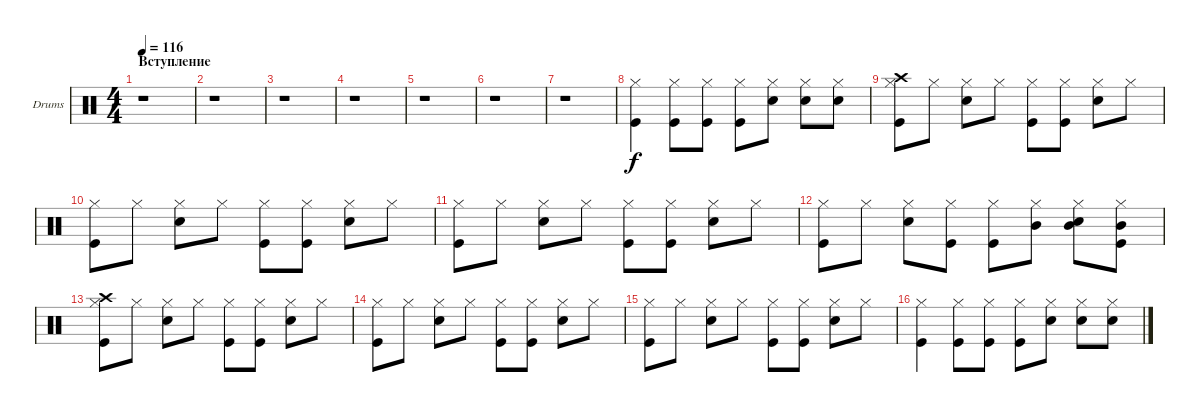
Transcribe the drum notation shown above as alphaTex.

\defaultSystemsLayout 4
\bracketExtendMode groupsimilarinstruments
\firstSystemTrackNameOrientation horizontal
\otherSystemsTrackNameOrientation horizontal
\track ("Drumkit" "Drums") {instrument percussion}
\staff {score}
\articulation defaults
\ts (4 4)
\section ("" "Вступление")
\tempo 116
\clef neutral
\scale
0.472222
\ks c
r.1{dy f} |
\scale
0.263889 r.1 |
\scale
0.263889 r.1 |
\scale
0.333333 r.1 |
\scale
0.333333 r.1 |
\scale
0.333333 r.1 |
\scale
0.333333 r.1 |
\scale
0.333333 ("Hi-Hat (closed)" "Kick (hit)").4 ("Hi-Hat (closed)" "Kick (hit)").8 ("Hi-Hat (closed)" "Kick (hit)").8 ("Hi-Hat (closed)" "Kick (hit)").8 ("Hi-Hat (closed)" "Snare (hit) 2").8 ("Hi-Hat (closed)" "Snare (hit) 2").8 ("Hi-Hat (closed)" "Snare (hit) 2").8 |
\scale
0.333333 ("Hi-Hat (closed)" "Crash high (hit)" "Kick (hit)").8 "Hi-Hat (closed)".8 ("Hi-Hat (closed)" "Snare (hit) 2").8 "Hi-Hat (closed)".8 ("Hi-Hat (closed)" "Kick (hit)").8 ("Hi-Hat (closed)" "Kick (hit)").8 ("Hi-Hat (closed)" "Snare (hit) 2").8 "Hi-Hat (closed)".8 |
\scale
0.333333 ("Hi-Hat (closed)" "Kick (hit)").8 "Hi-Hat (closed)".8 ("Hi-Hat (closed)" "Snare (hit) 2").8 "Hi-Hat (closed)".8 ("Hi-Hat (closed)" "Kick (hit)").8 ("Hi-Hat (closed)" "Kick (hit)").8 ("Hi-Hat (closed)" "Snare (hit) 2").8 "Hi-Hat (closed)".8 |
\scale
0.333333 ("Hi-Hat (closed)" "Kick (hit)").8 "Hi-Hat (closed)".8 ("Hi-Hat (closed)" "Snare (hit) 2").8 "Hi-Hat (closed)".8 ("Hi-Hat (closed)" "Kick (hit)").8 ("Hi-Hat (closed)" "Kick (hit)").8 ("Hi-Hat (closed)" "Snare (hit) 2").8 "Hi-Hat (closed)".8 |
\scale
0.333333 ("Hi-Hat (closed)" "Kick (hit)").8 "Hi-Hat (closed)".8 ("Hi-Hat (closed)" "Snare (hit) 2").8 ("Hi-Hat (closed)" "Kick (hit)").8 ("Hi-Hat (closed)" "Kick (hit)").8 ("Hi-Hat (closed)" "Mid Tom (hit)").8 ("Hi-Hat (closed)" "Snare (hit) 2" "Mid Tom (hit)").8 ("Hi-Hat (closed)" "Kick (hit)" "Mid Tom (hit)").8 |
\scale
0.333333 ("Hi-Hat (closed)" "Crash high (hit)" "Kick (hit)").8 "Hi-Hat (closed)".8 ("Hi-Hat (closed)" "Snare (hit) 2").8 "Hi-Hat (closed)".8 ("Hi-Hat (closed)" "Kick (hit)").8 ("Hi-Hat (closed)" "Kick (hit)").8 ("Hi-Hat (closed)" "Snare (hit) 2").8 "Hi-Hat (closed)".8 |
\scale
0.333333 ("Hi-Hat (closed)" "Kick (hit)").8 "Hi-Hat (closed)".8 ("Hi-Hat (closed)" "Snare (hit) 2").8 "Hi-Hat (closed)".8 ("Hi-Hat (closed)" "Kick (hit)").8 ("Hi-Hat (closed)" "Kick (hit)").8 ("Hi-Hat (closed)" "Snare (hit) 2").8 "Hi-Hat (closed)".8 |
\scale
0.333333 ("Hi-Hat (closed)" "Kick (hit)").8 "Hi-Hat (closed)".8 ("Hi-Hat (closed)" "Snare (hit) 2").8 "Hi-Hat (closed)".8 ("Hi-Hat (closed)" "Kick (hit)").8 ("Hi-Hat (closed)" "Kick (hit)").8 ("Hi-Hat (closed)" "Snare (hit) 2").8 "Hi-Hat (closed)".8 |
("Hi-Hat (closed)" "Kick (hit)").4 ("Hi-Hat (closed)" "Kick (hit)").8 ("Hi-Hat (closed)" "Kick (hit)").8 ("Hi-Hat (closed)" "Kick (hit)").8 ("Hi-Hat (closed)" "Snare (hit) 2").8 ("Hi-Hat (closed)" "Snare (hit) 2").8 ("Hi-Hat (closed)" "Snare (hit) 2").8
